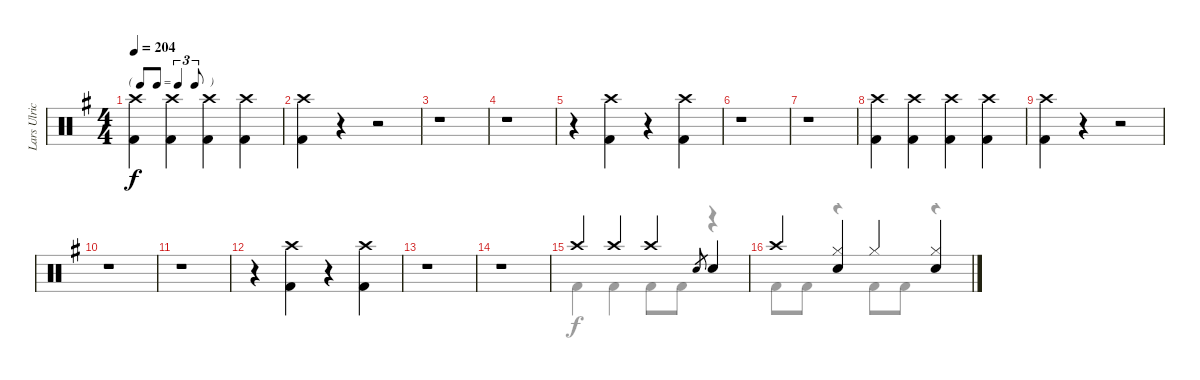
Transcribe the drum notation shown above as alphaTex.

\track ("Lars Ulrich" "Lars Ulric") {instrument percussion}
\staff {score}
\articulation defaults
\voice
\ts (4 4)
\tf triplet8th
\tempo 204
\clef neutral
\ks eminor
("Crash high (hit)" "Kick (hit) 2").4{dy f} ("Crash high (hit)" "Kick (hit) 2").4 ("Crash high (hit)" "Kick (hit) 2").4 ("Crash high (hit)" "Kick (hit) 2").4 |
("Crash high (hit)" "Kick (hit) 2").4 r.4 r.2 |
r.1 |
r.1 |
r.4 ("Crash high (hit)" "Kick (hit) 2").4 r.4 ("Crash high (hit)" "Kick (hit) 2").4 |
r.1 |
r.1 |
("Crash high (hit)" "Kick (hit) 2").4 ("Crash high (hit)" "Kick (hit) 2").4 ("Crash high (hit)" "Kick (hit) 2").4 ("Crash high (hit)" "Kick (hit) 2").4 |
("Crash high (hit)" "Kick (hit) 2").4 r.4 r.2 |
r.1 |
r.1 |
r.4 ("Crash high (hit)" "Kick (hit) 2").4 r.4 ("Crash high (hit)" "Kick (hit) 2").4 |
r.1 |
r.1 |
"Crash high (hit)".4 "Crash high (hit)".4 "Crash high (hit)".4 "Snare (hit) 2"{h}.8{gr} "Snare (hit) 2".4 |
"Crash high (hit)".4 ("Hi-Hat (closed)" "Snare (hit) 2").4 "Hi-Hat (closed)".4 ("Hi-Hat (closed)" "Snare (hit) 2").4
\voice
\clef neutral
\ottava regular
\simile none
\ks eminor
|
|
|
|
|
|
|
|
|
|
|
|
|
|
"Kick (hit) 2".4 "Kick (hit) 2".4 "Kick (hit) 2".8 "Kick (hit) 2".8 r.4 |
"Kick (hit) 2".8 "Kick (hit) 2".8 r.4 "Kick (hit) 2".8 "Kick (hit) 2".8 r.4
